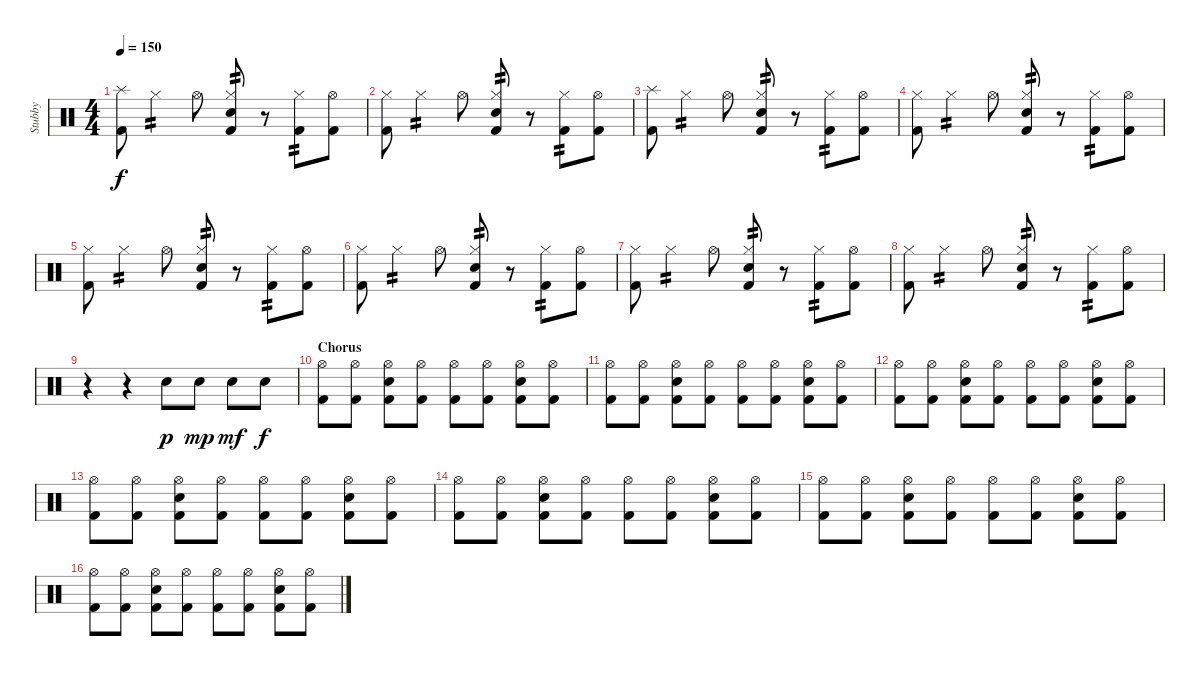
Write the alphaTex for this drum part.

\track ("Stubby" "Stubby") {instrument percussion}
\staff {score}
\articulation defaults
\ts (4 4)
\tempo 150
\clef neutral
\ks c
("Splash (hit)" "Kick (hit) 2").8{dy f} "Hi-Hat (closed)".4{tp 2} "Hi-Hat (open)".8 ("Hi-Hat (closed)" "Snare (hit) 2" "Kick (hit) 2").8{tp 2} r.8 ("Hi-Hat (closed)" "Kick (hit) 2").8{tp 2} ("Hi-Hat (open)" "Kick (hit) 2").8 |
("Hi-Hat (closed)" "Kick (hit) 2").8 "Hi-Hat (closed)".4{tp 2} "Hi-Hat (open)".8 ("Hi-Hat (closed)" "Snare (hit) 2" "Kick (hit) 2").8{tp 2} r.8 ("Hi-Hat (closed)" "Kick (hit) 2").8{tp 2} ("Hi-Hat (open)" "Kick (hit) 2").8 |
("Splash (hit)" "Kick (hit) 2").8 "Hi-Hat (closed)".4{tp 2} "Hi-Hat (open)".8 ("Hi-Hat (closed)" "Snare (hit) 2" "Kick (hit) 2").8{tp 2} r.8 ("Hi-Hat (closed)" "Kick (hit) 2").8{tp 2} ("Hi-Hat (open)" "Kick (hit) 2").8 |
("Hi-Hat (closed)" "Kick (hit) 2").8 "Hi-Hat (closed)".4{tp 2} "Hi-Hat (open)".8 ("Hi-Hat (closed)" "Snare (hit) 2" "Kick (hit) 2").8{tp 2} r.8 ("Hi-Hat (closed)" "Kick (hit) 2").8{tp 2} ("Hi-Hat (open)" "Kick (hit) 2").8 |
("Hi-Hat (closed)" "Kick (hit) 2").8 "Hi-Hat (closed)".4{tp 2} "Hi-Hat (open)".8 ("Hi-Hat (closed)" "Snare (hit) 2" "Kick (hit) 2").8{tp 2} r.8 ("Hi-Hat (closed)" "Kick (hit) 2").8{tp 2} ("Hi-Hat (open)" "Kick (hit) 2").8 |
("Hi-Hat (closed)" "Kick (hit) 2").8 "Hi-Hat (closed)".4{tp 2} "Hi-Hat (open)".8 ("Hi-Hat (closed)" "Snare (hit) 2" "Kick (hit) 2").8{tp 2} r.8 ("Hi-Hat (closed)" "Kick (hit) 2").8{tp 2} ("Hi-Hat (open)" "Kick (hit) 2").8 |
("Hi-Hat (closed)" "Kick (hit) 2").8 "Hi-Hat (closed)".4{tp 2} "Hi-Hat (open)".8 ("Hi-Hat (closed)" "Snare (hit) 2" "Kick (hit) 2").8{tp 2} r.8 ("Hi-Hat (closed)" "Kick (hit) 2").8{tp 2} ("Hi-Hat (open)" "Kick (hit) 2").8 |
("Hi-Hat (closed)" "Kick (hit) 2").8 "Hi-Hat (closed)".4{tp 2} "Hi-Hat (open)".8 ("Hi-Hat (closed)" "Snare (hit) 2" "Kick (hit) 2").8{tp 2} r.8 ("Hi-Hat (closed)" "Kick (hit) 2").8{tp 2} ("Hi-Hat (open)" "Kick (hit) 2").8 |
r.4 r.4 "Snare (hit) 2".8{dy p} "Snare (hit) 2".8{dy mp} "Snare (hit) 2".8{dy mf} "Snare (hit) 2".8{dy f} |
\section ("" "Chorus")
("Hi-Hat (open)" "Kick (hit) 2").8 ("Hi-Hat (open)" "Kick (hit) 2").8 ("Hi-Hat (open)" "Snare (hit) 2" "Kick (hit) 2").8 ("Hi-Hat (open)" "Kick (hit) 2").8 ("Hi-Hat (open)" "Kick (hit) 2").8 ("Hi-Hat (open)" "Kick (hit) 2").8 ("Hi-Hat (open)" "Snare (hit) 2" "Kick (hit) 2").8 ("Hi-Hat (open)" "Kick (hit) 2").8 |
("Hi-Hat (open)" "Kick (hit) 2").8 ("Hi-Hat (open)" "Kick (hit) 2").8 ("Hi-Hat (open)" "Snare (hit) 2" "Kick (hit) 2").8 ("Hi-Hat (open)" "Kick (hit) 2").8 ("Hi-Hat (open)" "Kick (hit) 2").8 ("Hi-Hat (open)" "Kick (hit) 2").8 ("Hi-Hat (open)" "Snare (hit) 2" "Kick (hit) 2").8 ("Hi-Hat (open)" "Kick (hit) 2").8 |
("Hi-Hat (open)" "Kick (hit) 2").8 ("Hi-Hat (open)" "Kick (hit) 2").8 ("Hi-Hat (open)" "Snare (hit) 2" "Kick (hit) 2").8 ("Hi-Hat (open)" "Kick (hit) 2").8 ("Hi-Hat (open)" "Kick (hit) 2").8 ("Hi-Hat (open)" "Kick (hit) 2").8 ("Hi-Hat (open)" "Snare (hit) 2" "Kick (hit) 2").8 ("Hi-Hat (open)" "Kick (hit) 2").8 |
("Hi-Hat (open)" "Kick (hit) 2").8 ("Hi-Hat (open)" "Kick (hit) 2").8 ("Hi-Hat (open)" "Snare (hit) 2" "Kick (hit) 2").8 ("Hi-Hat (open)" "Kick (hit) 2").8 ("Hi-Hat (open)" "Kick (hit) 2").8 ("Hi-Hat (open)" "Kick (hit) 2").8 ("Hi-Hat (open)" "Snare (hit) 2" "Kick (hit) 2").8 ("Hi-Hat (open)" "Kick (hit) 2").8 |
("Hi-Hat (open)" "Kick (hit) 2").8 ("Hi-Hat (open)" "Kick (hit) 2").8 ("Hi-Hat (open)" "Snare (hit) 2" "Kick (hit) 2").8 ("Hi-Hat (open)" "Kick (hit) 2").8 ("Hi-Hat (open)" "Kick (hit) 2").8 ("Hi-Hat (open)" "Kick (hit) 2").8 ("Hi-Hat (open)" "Snare (hit) 2" "Kick (hit) 2").8 ("Hi-Hat (open)" "Kick (hit) 2").8 |
("Hi-Hat (open)" "Kick (hit) 2").8 ("Hi-Hat (open)" "Kick (hit) 2").8 ("Hi-Hat (open)" "Snare (hit) 2" "Kick (hit) 2").8 ("Hi-Hat (open)" "Kick (hit) 2").8 ("Hi-Hat (open)" "Kick (hit) 2").8 ("Hi-Hat (open)" "Kick (hit) 2").8 ("Hi-Hat (open)" "Snare (hit) 2" "Kick (hit) 2").8 ("Hi-Hat (open)" "Kick (hit) 2").8 |
("Hi-Hat (open)" "Kick (hit) 2").8 ("Hi-Hat (open)" "Kick (hit) 2").8 ("Hi-Hat (open)" "Snare (hit) 2" "Kick (hit) 2").8 ("Hi-Hat (open)" "Kick (hit) 2").8 ("Hi-Hat (open)" "Kick (hit) 2").8 ("Hi-Hat (open)" "Kick (hit) 2").8 ("Hi-Hat (open)" "Snare (hit) 2" "Kick (hit) 2").8 ("Hi-Hat (open)" "Kick (hit) 2").8
